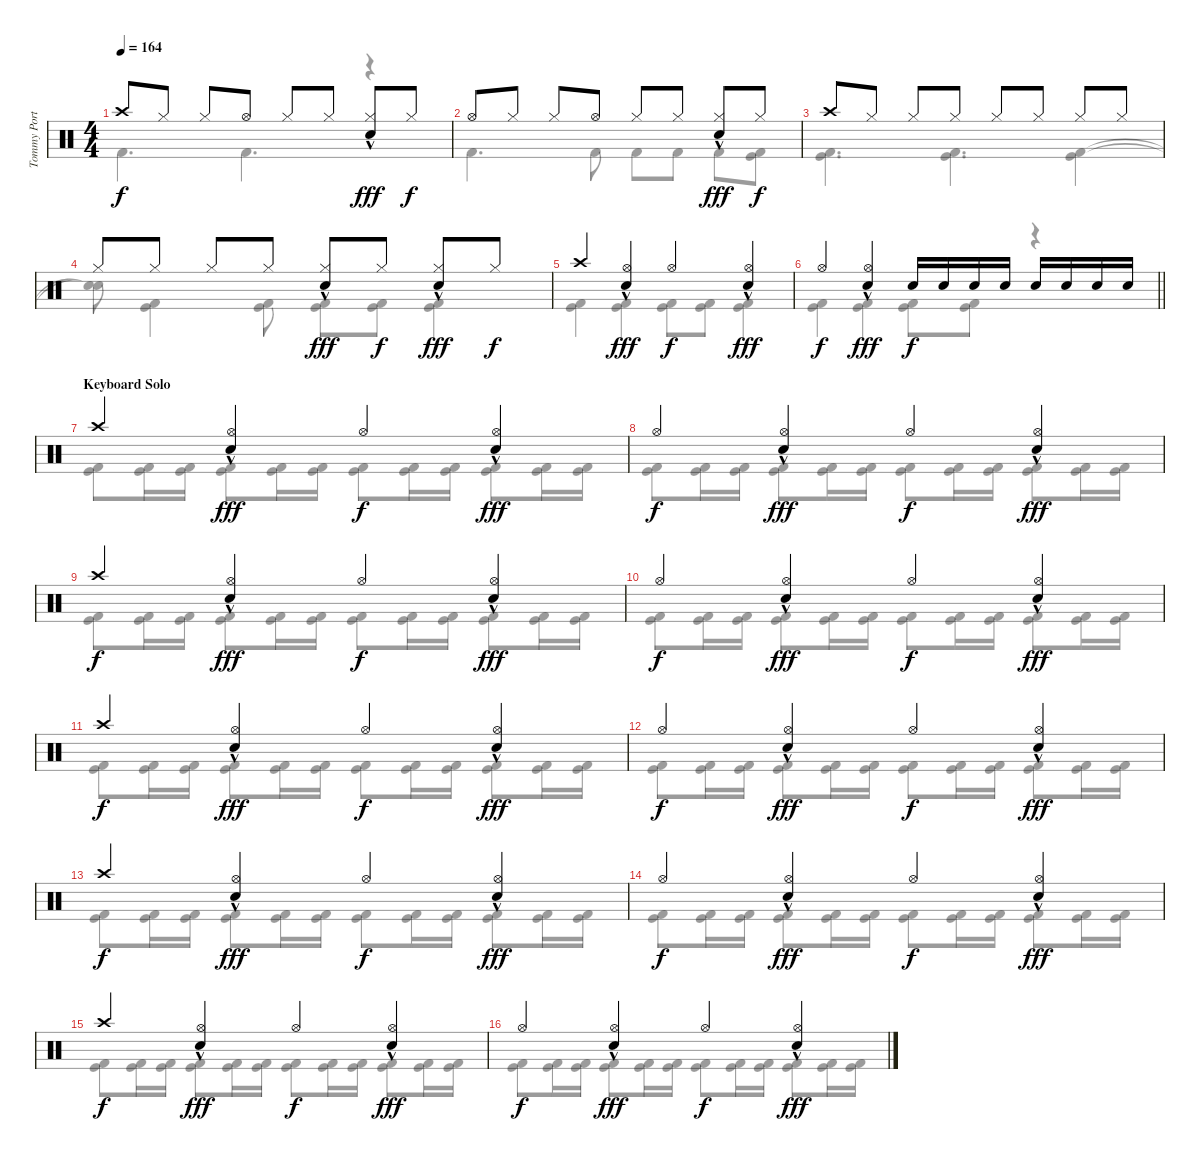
\track ("Tommy Portimo" "Tommy Port") {instrument percussion}
\staff {score}
\articulation defaults
\voice
\ts (4 4)
\tempo 164
\clef neutral
\ks c "Crash high (hit)".8{dy f} "Hi-Hat (closed)".8 "Hi-Hat (closed)".8 "Hi-Hat (open)".8 "Hi-Hat (closed)".8 "Hi-Hat (closed)".8
("Snare (hit) 2"{hac} "Hi-Hat (closed)").8{dy fff} "Hi-Hat (closed)".8{dy f} |
"Hi-Hat (open)".8 "Hi-Hat (closed)".8 "Hi-Hat (closed)".8 "Hi-Hat (open)".8 "Hi-Hat (closed)".8 "Hi-Hat (closed)".8 ("Snare (hit) 2"{hac} "Hi-Hat (closed)").8{dy fff} "Hi-Hat (closed)".8{dy f} |
"Crash high (hit)".8 "Hi-Hat (closed)".8 "Hi-Hat (closed)".8 "Hi-Hat (closed)".8 "Hi-Hat (closed)".8 "Hi-Hat (closed)".8 "Hi-Hat (closed)".8 "Hi-Hat (closed)".8 |
"Hi-Hat (closed)".8 "Hi-Hat (closed)".8 "Hi-Hat (closed)".8 "Hi-Hat (closed)".8 ("Snare (hit) 2"{hac} "Hi-Hat (closed)").8{dy fff} "Hi-Hat (closed)".8{dy f} ("Snare (hit) 2"{hac} "Hi-Hat (closed)").8{dy fff} "Hi-Hat (closed)".8{dy f} |
"Crash high (hit)".4 ("Snare (hit) 2"{hac} "Hi-Hat (open)").4{dy fff} "Hi-Hat (open)".4{dy f} ("Snare (hit) 2"{hac} "Hi-Hat (open)").4{dy fff} |
\barLineRight lightlight "Hi-Hat (open)".4{dy f}
("Snare (hit) 2"{hac} "Hi-Hat (open)").4{dy fff} "Snare (hit) 2".16{dy f} "Snare (hit) 2".16 "Snare (hit) 2".16 "Snare (hit) 2".16 "Snare (hit) 2".16 "Snare (hit) 2".16 "Snare (hit) 2".16 "Snare (hit) 2".16 |
\section ("" "Keyboard Solo")
"Crash high (hit)".4 ("Snare (hit) 2"{hac} "Hi-Hat (open)").4{dy fff} "Hi-Hat (open)".4{dy f} ("Snare (hit) 2"{hac} "Hi-Hat (open)").4{dy fff} |
"Hi-Hat (open)".4{dy f} ("Snare (hit) 2"{hac} "Hi-Hat (open)").4{dy fff} "Hi-Hat (open)".4{dy f} ("Snare (hit) 2"{hac} "Hi-Hat (open)").4{dy fff} |
"Crash high (hit)".4{dy f} ("Snare (hit) 2"{hac} "Hi-Hat (open)").4{dy fff} "Hi-Hat (open)".4{dy f} ("Snare (hit) 2"{hac} "Hi-Hat (open)").4{dy fff} |
"Hi-Hat (open)".4{dy f} ("Snare (hit) 2"{hac} "Hi-Hat (open)").4{dy fff} "Hi-Hat (open)".4{dy f} ("Snare (hit) 2"{hac} "Hi-Hat (open)").4{dy fff} |
"Crash high (hit)".4{dy f} ("Snare (hit) 2"{hac} "Hi-Hat (open)").4{dy fff} "Hi-Hat (open)".4{dy f} ("Snare (hit) 2"{hac} "Hi-Hat (open)").4{dy fff} |
"Hi-Hat (open)".4{dy f} ("Snare (hit) 2"{hac} "Hi-Hat (open)").4{dy fff} "Hi-Hat (open)".4{dy f} ("Snare (hit) 2"{hac} "Hi-Hat (open)").4{dy fff} |
"Crash high (hit)".4{dy f} ("Snare (hit) 2"{hac} "Hi-Hat (open)").4{dy fff} "Hi-Hat (open)".4{dy f} ("Snare (hit) 2"{hac} "Hi-Hat (open)").4{dy fff} |
"Hi-Hat (open)".4{dy f} ("Snare (hit) 2"{hac} "Hi-Hat (open)").4{dy fff} "Hi-Hat (open)".4{dy f} ("Snare (hit) 2"{hac} "Hi-Hat (open)").4{dy fff} |
"Crash high (hit)".4{dy f} ("Snare (hit) 2"{hac} "Hi-Hat (open)").4{dy fff} "Hi-Hat (open)".4{dy f} ("Snare (hit) 2"{hac} "Hi-Hat (open)").4{dy fff} |
"Hi-Hat (open)".4{dy f} ("Snare (hit) 2"{hac} "Hi-Hat (open)").4{dy fff} "Hi-Hat (open)".4{dy f} ("Snare (hit) 2"{hac} "Hi-Hat (open)").4{dy fff}
\voice
\clef neutral
\ottava regular
\simile none
\ks c "Kick (hit) 2".4{d dy f} "Kick (hit) 2".4{d}
r.4 |
"Kick (hit) 2".4{d} "Kick (hit) 2".8 "Kick (hit) 2".8 "Kick (hit) 2".8 "Kick (hit) 2".8 ("Kick (hit)" "Kick (hit) 2").8 |
("Kick (hit)" "Kick (hit) 2").4{d} ("Kick (hit)" "Kick (hit) 2").4{d} ("Kick (hit)" "Kick (hit) 2").4 |
("Snare (hit)"{t} "Snare (hit)"{t}).8 ("Kick (hit)" "Kick (hit) 2").4 ("Kick (hit)" "Kick (hit) 2").8 ("Kick (hit)" "Kick (hit) 2").8 ("Kick (hit)" "Kick (hit) 2").8 ("Kick (hit)" "Kick (hit) 2").4 |
("Kick (hit)" "Kick (hit) 2").4 ("Kick (hit)" "Kick (hit) 2").4 ("Kick (hit)" "Kick (hit) 2").8 ("Kick (hit)" "Kick (hit) 2").8 ("Kick (hit)" "Kick (hit) 2").4 |
\barLineRight lightlight
("Kick (hit)" "Kick (hit) 2").4 ("Kick (hit)" "Kick (hit) 2").4 ("Kick (hit)" "Kick (hit) 2").8 ("Kick (hit)" "Kick (hit) 2").8 r.4 |
("Kick (hit)" "Kick (hit) 2").8 ("Kick (hit)" "Kick (hit) 2").16 ("Kick (hit)" "Kick (hit) 2").16 ("Kick (hit)" "Kick (hit) 2").8 ("Kick (hit)" "Kick (hit) 2").16 ("Kick (hit)" "Kick (hit) 2").16 ("Kick (hit)" "Kick (hit) 2").8 ("Kick (hit)" "Kick (hit) 2").16 ("Kick (hit)" "Kick (hit) 2").16 ("Kick (hit)" "Kick (hit) 2").8 ("Kick (hit)" "Kick (hit) 2").16 ("Kick (hit)" "Kick (hit) 2").16 |
("Kick (hit)" "Kick (hit) 2").8 ("Kick (hit)" "Kick (hit) 2").16 ("Kick (hit)" "Kick (hit) 2").16 ("Kick (hit)" "Kick (hit) 2").8 ("Kick (hit)" "Kick (hit) 2").16 ("Kick (hit)" "Kick (hit) 2").16 ("Kick (hit)" "Kick (hit) 2").8 ("Kick (hit)" "Kick (hit) 2").16 ("Kick (hit)" "Kick (hit) 2").16 ("Kick (hit)" "Kick (hit) 2").8 ("Kick (hit)" "Kick (hit) 2").16 ("Kick (hit)" "Kick (hit) 2").16 |
("Kick (hit)" "Kick (hit) 2").8 ("Kick (hit)" "Kick (hit) 2").16 ("Kick (hit)" "Kick (hit) 2").16 ("Kick (hit)" "Kick (hit) 2").8 ("Kick (hit)" "Kick (hit) 2").16 ("Kick (hit)" "Kick (hit) 2").16 ("Kick (hit)" "Kick (hit) 2").8 ("Kick (hit)" "Kick (hit) 2").16 ("Kick (hit)" "Kick (hit) 2").16 ("Kick (hit)" "Kick (hit) 2").8 ("Kick (hit)" "Kick (hit) 2").16 ("Kick (hit)" "Kick (hit) 2").16 |
("Kick (hit)" "Kick (hit) 2").8 ("Kick (hit)" "Kick (hit) 2").16 ("Kick (hit)" "Kick (hit) 2").16 ("Kick (hit)" "Kick (hit) 2").8 ("Kick (hit)" "Kick (hit) 2").16 ("Kick (hit)" "Kick (hit) 2").16 ("Kick (hit)" "Kick (hit) 2").8 ("Kick (hit)" "Kick (hit) 2").16 ("Kick (hit)" "Kick (hit) 2").16 ("Kick (hit)" "Kick (hit) 2").8 ("Kick (hit)" "Kick (hit) 2").16 ("Kick (hit)" "Kick (hit) 2").16 |
("Kick (hit)" "Kick (hit) 2").8 ("Kick (hit)" "Kick (hit) 2").16 ("Kick (hit)" "Kick (hit) 2").16 ("Kick (hit)" "Kick (hit) 2").8 ("Kick (hit)" "Kick (hit) 2").16 ("Kick (hit)" "Kick (hit) 2").16 ("Kick (hit)" "Kick (hit) 2").8 ("Kick (hit)" "Kick (hit) 2").16 ("Kick (hit)" "Kick (hit) 2").16 ("Kick (hit)" "Kick (hit) 2").8 ("Kick (hit)" "Kick (hit) 2").16 ("Kick (hit)" "Kick (hit) 2").16 |
("Kick (hit)" "Kick (hit) 2").8 ("Kick (hit)" "Kick (hit) 2").16 ("Kick (hit)" "Kick (hit) 2").16 ("Kick (hit)" "Kick (hit) 2").8 ("Kick (hit)" "Kick (hit) 2").16 ("Kick (hit)" "Kick (hit) 2").16 ("Kick (hit)" "Kick (hit) 2").8 ("Kick (hit)" "Kick (hit) 2").16 ("Kick (hit)" "Kick (hit) 2").16 ("Kick (hit)" "Kick (hit) 2").8 ("Kick (hit)" "Kick (hit) 2").16 ("Kick (hit)" "Kick (hit) 2").16 |
("Kick (hit)" "Kick (hit) 2").8 ("Kick (hit)" "Kick (hit) 2").16 ("Kick (hit)" "Kick (hit) 2").16 ("Kick (hit)" "Kick (hit) 2").8 ("Kick (hit)" "Kick (hit) 2").16 ("Kick (hit)" "Kick (hit) 2").16 ("Kick (hit)" "Kick (hit) 2").8 ("Kick (hit)" "Kick (hit) 2").16 ("Kick (hit)" "Kick (hit) 2").16 ("Kick (hit)" "Kick (hit) 2").8 ("Kick (hit)" "Kick (hit) 2").16 ("Kick (hit)" "Kick (hit) 2").16 |
("Kick (hit)" "Kick (hit) 2").8 ("Kick (hit)" "Kick (hit) 2").16 ("Kick (hit)" "Kick (hit) 2").16 ("Kick (hit)" "Kick (hit) 2").8 ("Kick (hit)" "Kick (hit) 2").16 ("Kick (hit)" "Kick (hit) 2").16 ("Kick (hit)" "Kick (hit) 2").8 ("Kick (hit)" "Kick (hit) 2").16 ("Kick (hit)" "Kick (hit) 2").16 ("Kick (hit)" "Kick (hit) 2").8 ("Kick (hit)" "Kick (hit) 2").16 ("Kick (hit)" "Kick (hit) 2").16 |
("Kick (hit)" "Kick (hit) 2").8 ("Kick (hit)" "Kick (hit) 2").16 ("Kick (hit)" "Kick (hit) 2").16 ("Kick (hit)" "Kick (hit) 2").8 ("Kick (hit)" "Kick (hit) 2").16 ("Kick (hit)" "Kick (hit) 2").16 ("Kick (hit)" "Kick (hit) 2").8 ("Kick (hit)" "Kick (hit) 2").16 ("Kick (hit)" "Kick (hit) 2").16 ("Kick (hit)" "Kick (hit) 2").8 ("Kick (hit)" "Kick (hit) 2").16 ("Kick (hit)" "Kick (hit) 2").16 |
("Kick (hit)" "Kick (hit) 2").8 ("Kick (hit)" "Kick (hit) 2").16 ("Kick (hit)" "Kick (hit) 2").16 ("Kick (hit)" "Kick (hit) 2").8 ("Kick (hit)" "Kick (hit) 2").16 ("Kick (hit)" "Kick (hit) 2").16 ("Kick (hit)" "Kick (hit) 2").8 ("Kick (hit)" "Kick (hit) 2").16 ("Kick (hit)" "Kick (hit) 2").16 ("Kick (hit)" "Kick (hit) 2").8 ("Kick (hit)" "Kick (hit) 2").16 ("Kick (hit)" "Kick (hit) 2").16
